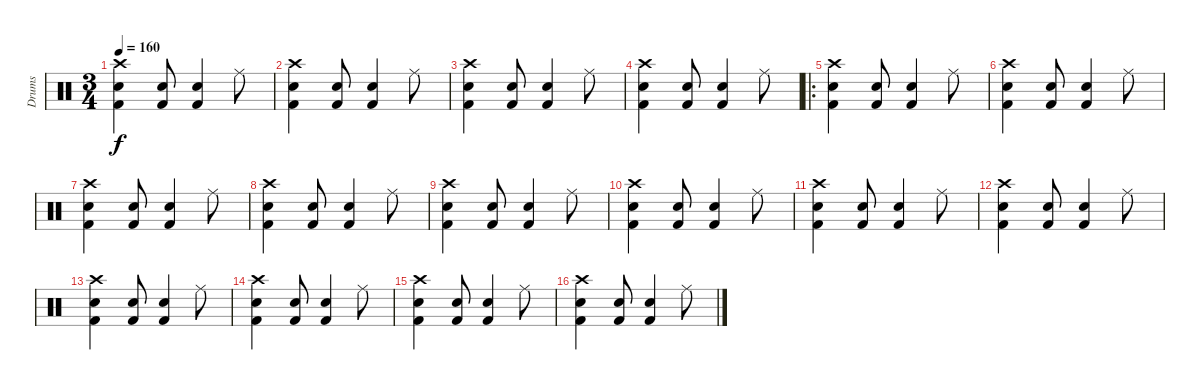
\track ("Drums" "Drums") {instrument percussion}
\staff {score}
\articulation defaults
\ts (3 4)
\tempo 160
\clef neutral
\ks c
("Crash high (hit)" "Kick (hit) 2" "Snare (hit) 2").4{dy f} ("Kick (hit) 2" "Snare (hit) 2").8 ("Kick (hit) 2" "Snare (hit) 2").4 "Ride (middle)".8 |
("Crash high (hit)" "Kick (hit) 2" "Snare (hit) 2").4 ("Kick (hit) 2" "Snare (hit) 2").8 ("Kick (hit) 2" "Snare (hit) 2").4 "Ride (middle)".8 |
("Crash high (hit)" "Kick (hit) 2" "Snare (hit) 2").4 ("Kick (hit) 2" "Snare (hit) 2").8 ("Kick (hit) 2" "Snare (hit) 2").4 "Ride (middle)".8 |
("Crash high (hit)" "Kick (hit) 2" "Snare (hit) 2").4 ("Kick (hit) 2" "Snare (hit) 2").8 ("Kick (hit) 2" "Snare (hit) 2").4 "Ride (middle)".8 |
\ro
("Crash high (hit)" "Kick (hit) 2" "Snare (hit) 2").4 ("Kick (hit) 2" "Snare (hit) 2").8 ("Kick (hit) 2" "Snare (hit) 2").4 "Ride (middle)".8 |
("Crash high (hit)" "Kick (hit) 2" "Snare (hit) 2").4 ("Kick (hit) 2" "Snare (hit) 2").8 ("Kick (hit) 2" "Snare (hit) 2").4 "Ride (middle)".8 |
("Crash high (hit)" "Kick (hit) 2" "Snare (hit) 2").4 ("Kick (hit) 2" "Snare (hit) 2").8 ("Kick (hit) 2" "Snare (hit) 2").4 "Ride (middle)".8 |
("Crash high (hit)" "Kick (hit) 2" "Snare (hit) 2").4 ("Kick (hit) 2" "Snare (hit) 2").8 ("Kick (hit) 2" "Snare (hit) 2").4 "Ride (middle)".8 |
("Crash high (hit)" "Kick (hit) 2" "Snare (hit) 2").4 ("Kick (hit) 2" "Snare (hit) 2").8 ("Kick (hit) 2" "Snare (hit) 2").4 "Ride (middle)".8 |
("Crash high (hit)" "Kick (hit) 2" "Snare (hit) 2").4 ("Kick (hit) 2" "Snare (hit) 2").8 ("Kick (hit) 2" "Snare (hit) 2").4 "Ride (middle)".8 |
("Crash high (hit)" "Kick (hit) 2" "Snare (hit) 2").4 ("Kick (hit) 2" "Snare (hit) 2").8 ("Kick (hit) 2" "Snare (hit) 2").4 "Ride (middle)".8 |
("Crash high (hit)" "Kick (hit) 2" "Snare (hit) 2").4 ("Kick (hit) 2" "Snare (hit) 2").8 ("Kick (hit) 2" "Snare (hit) 2").4 "Ride (middle)".8 |
("Crash high (hit)" "Kick (hit) 2" "Snare (hit) 2").4 ("Kick (hit) 2" "Snare (hit) 2").8 ("Kick (hit) 2" "Snare (hit) 2").4 "Ride (middle)".8 |
("Crash high (hit)" "Kick (hit) 2" "Snare (hit) 2").4 ("Kick (hit) 2" "Snare (hit) 2").8 ("Kick (hit) 2" "Snare (hit) 2").4 "Ride (middle)".8 |
("Crash high (hit)" "Kick (hit) 2" "Snare (hit) 2").4 ("Kick (hit) 2" "Snare (hit) 2").8 ("Kick (hit) 2" "Snare (hit) 2").4 "Ride (middle)".8 |
("Crash high (hit)" "Kick (hit) 2" "Snare (hit) 2").4 ("Kick (hit) 2" "Snare (hit) 2").8 ("Kick (hit) 2" "Snare (hit) 2").4 "Ride (middle)".8
